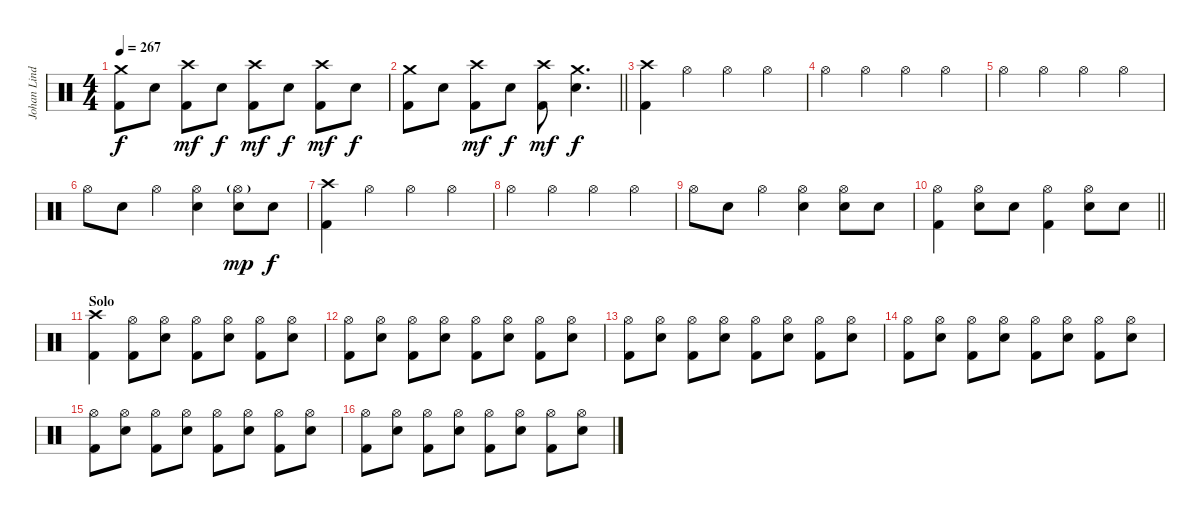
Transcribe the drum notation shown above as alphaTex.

\track ("Johan Lindstrand" "Johan Lind") {instrument percussion}
\staff {score}
\articulation defaults
\ts (4 4)
\tempo 267
\clef neutral
\ks c
("Crash medium (hit)" "Kick (hit) 2").8{dy f} "Electric Snare (hit)".8 ("Crash high (hit)" "Kick (hit) 2").8{dy mf} "Electric Snare (hit)".8{dy f} ("Crash high (hit)" "Kick (hit) 2").8{dy mf} "Electric Snare (hit)".8{dy f} ("Crash high (hit)" "Kick (hit) 2").8{dy mf} "Electric Snare (hit)".8{dy f} |
\barLineRight lightlight
("Crash medium (hit)" "Kick (hit) 2").8 "Electric Snare (hit)".8 ("Crash high (hit)" "Kick (hit) 2").8{dy mf} "Electric Snare (hit)".8{dy f} ("Crash high (hit)" "Kick (hit) 2").8{dy mf} ("Crash medium (hit)" "Electric Snare (hit)").4{d dy f} |
\section ("" "")
("Crash high (hit)" "Kick (hit) 2").4 "Hi-Hat (open)".4 "Hi-Hat (open)".4 "Hi-Hat (open)".4 |
"Hi-Hat (open)".4 "Hi-Hat (open)".4 "Hi-Hat (open)".4 "Hi-Hat (open)".4 |
"Hi-Hat (open)".4 "Hi-Hat (open)".4 "Hi-Hat (open)".4 "Hi-Hat (open)".4 |
"Hi-Hat (open)".8 "Electric Snare (hit)".8 "Hi-Hat (open)".4 ("Hi-Hat (open)" "Electric Snare (hit)").4 ("Hi-Hat (open)"{g} "Electric Snare (hit)").8{dy mp} "Electric Snare (hit)".8{dy f} |
("Crash high (hit)" "Kick (hit) 2").4 "Hi-Hat (open)".4 "Hi-Hat (open)".4 "Hi-Hat (open)".4 |
"Hi-Hat (open)".4 "Hi-Hat (open)".4 "Hi-Hat (open)".4 "Hi-Hat (open)".4 |
"Hi-Hat (open)".8 "Electric Snare (hit)".8 "Hi-Hat (open)".4 ("Hi-Hat (open)" "Electric Snare (hit)").4 ("Hi-Hat (open)" "Electric Snare (hit)").8 "Electric Snare (hit)".8 |
\barLineRight lightlight
("Hi-Hat (open)" "Kick (hit) 2").4 ("Hi-Hat (open)" "Electric Snare (hit)").8 "Electric Snare (hit)".8 ("Hi-Hat (open)" "Kick (hit) 2").4 ("Hi-Hat (open)" "Electric Snare (hit)").8 "Electric Snare (hit)".8 |
\section ("" "Solo")
("Crash high (hit)" "Kick (hit) 2").4 ("Hi-Hat (open)" "Kick (hit) 2").8 ("Hi-Hat (open)" "Electric Snare (hit)").8 ("Hi-Hat (open)" "Kick (hit) 2").8 ("Hi-Hat (open)" "Electric Snare (hit)").8 ("Hi-Hat (open)" "Kick (hit) 2").8 ("Hi-Hat (open)" "Electric Snare (hit)").8 |
("Hi-Hat (open)" "Kick (hit) 2").8 ("Hi-Hat (open)" "Electric Snare (hit)").8 ("Hi-Hat (open)" "Kick (hit) 2").8 ("Hi-Hat (open)" "Electric Snare (hit)").8 ("Hi-Hat (open)" "Kick (hit) 2").8 ("Hi-Hat (open)" "Electric Snare (hit)").8 ("Hi-Hat (open)" "Kick (hit) 2").8 ("Hi-Hat (open)" "Electric Snare (hit)").8 |
("Hi-Hat (open)" "Kick (hit) 2").8 ("Hi-Hat (open)" "Electric Snare (hit)").8 ("Hi-Hat (open)" "Kick (hit) 2").8 ("Hi-Hat (open)" "Electric Snare (hit)").8 ("Hi-Hat (open)" "Kick (hit) 2").8 ("Hi-Hat (open)" "Electric Snare (hit)").8 ("Hi-Hat (open)" "Kick (hit) 2").8 ("Hi-Hat (open)" "Electric Snare (hit)").8 |
("Hi-Hat (open)" "Kick (hit) 2").8 ("Hi-Hat (open)" "Electric Snare (hit)").8 ("Hi-Hat (open)" "Kick (hit) 2").8 ("Hi-Hat (open)" "Electric Snare (hit)").8 ("Hi-Hat (open)" "Kick (hit) 2").8 ("Hi-Hat (open)" "Electric Snare (hit)").8 ("Hi-Hat (open)" "Kick (hit) 2").8 ("Hi-Hat (open)" "Electric Snare (hit)").8 |
("Hi-Hat (open)" "Kick (hit) 2").8 ("Hi-Hat (open)" "Electric Snare (hit)").8 ("Hi-Hat (open)" "Kick (hit) 2").8 ("Hi-Hat (open)" "Electric Snare (hit)").8 ("Hi-Hat (open)" "Kick (hit) 2").8 ("Hi-Hat (open)" "Electric Snare (hit)").8 ("Hi-Hat (open)" "Kick (hit) 2").8 ("Hi-Hat (open)" "Electric Snare (hit)").8 |
("Hi-Hat (open)" "Kick (hit) 2").8 ("Hi-Hat (open)" "Electric Snare (hit)").8 ("Hi-Hat (open)" "Kick (hit) 2").8 ("Hi-Hat (open)" "Electric Snare (hit)").8 ("Hi-Hat (open)" "Kick (hit) 2").8 ("Hi-Hat (open)" "Electric Snare (hit)").8 ("Hi-Hat (open)" "Kick (hit) 2").8 ("Hi-Hat (open)" "Electric Snare (hit)").8
